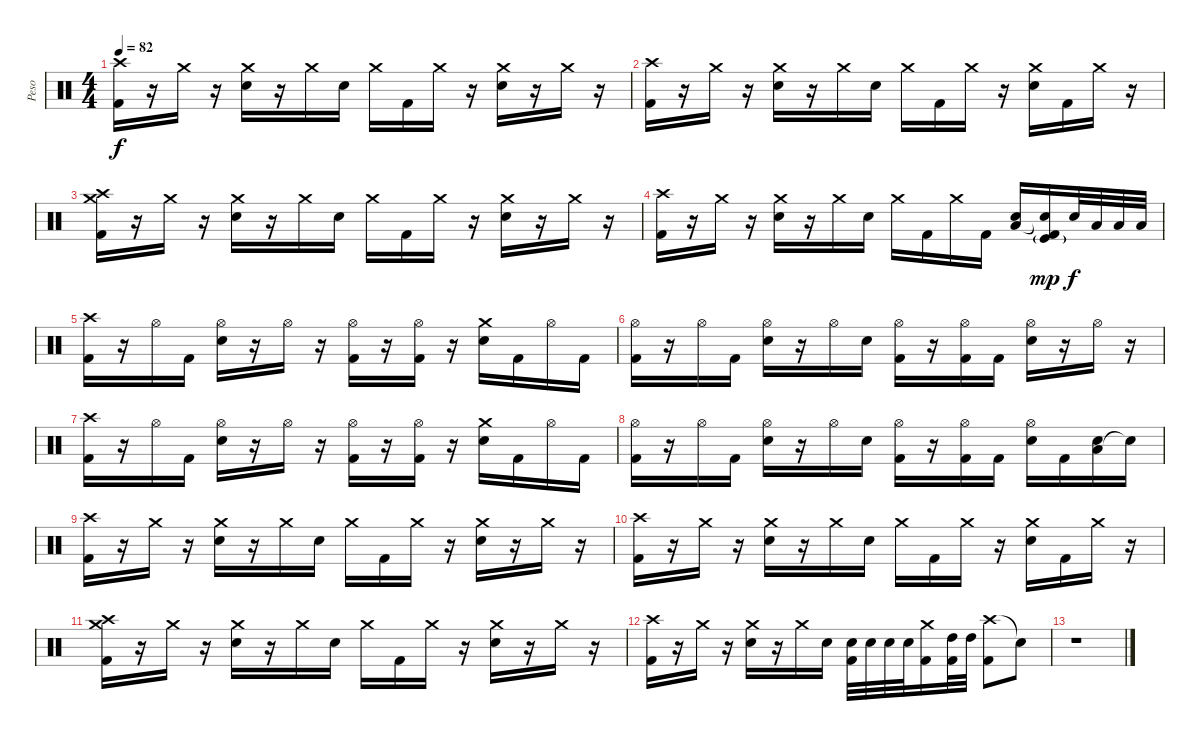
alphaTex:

\track ("Peso" "Peso") {instrument percussion}
\staff {score}
\articulation defaults
\ts (4 4)
\tempo 82
\clef neutral
\ks c
("Crash high (hit)" "Kick (hit) 2").16{dy f} r.16 "Crash medium (hit)".16 r.16 ("Crash medium (hit)" "Electric Snare (hit)").16 r.16 "Crash medium (hit)".16 "Electric Snare (hit)".16 "Crash medium (hit)".16 "Kick (hit) 2".16 "Crash medium (hit)".16 r.16 ("Crash medium (hit)" "Electric Snare (hit)").16 r.16 "Crash medium (hit)".16 r.16 |
("Crash high (hit)" "Kick (hit) 2").16 r.16 "Crash medium (hit)".16 r.16 ("Crash medium (hit)" "Electric Snare (hit)").16 r.16 "Crash medium (hit)".16 "Electric Snare (hit)".16 "Crash medium (hit)".16 "Kick (hit) 2".16 "Crash medium (hit)".16 r.16 ("Crash medium (hit)" "Electric Snare (hit)").16 "Kick (hit) 2".16 "Crash medium (hit)".16 r.16 |
("Crash high (hit)" "Crash medium (hit)" "Kick (hit) 2").16 r.16 "Crash medium (hit)".16 r.16 ("Crash medium (hit)" "Electric Snare (hit)").16 r.16 "Crash medium (hit)".16 "Electric Snare (hit)".16 "Crash medium (hit)".16 "Kick (hit) 2".16 "Crash medium (hit)".16 r.16 ("Crash medium (hit)" "Electric Snare (hit)").16 r.16 "Crash medium (hit)".16 r.16 |
("Crash high (hit)" "Kick (hit) 2").16 r.16 "Crash medium (hit)".16 r.16 ("Crash medium (hit)" "Electric Snare (hit)").16 r.16 "Crash medium (hit)".16 "Electric Snare (hit)".16 "Crash medium (hit)".16 "Kick (hit) 2".16 "Crash medium (hit)".16 "Kick (hit) 2".16 ("Low Floor Tom (hit)" "Electric Snare (hit)").16 ("Snare (hit)"{t} "Kick (hit)"{g} "Kick (hit) 2").16{dy mp} "Electric Snare (hit)".32{dy f} "Low Tom (hit)".32 "Low Tom (hit)".32 "Low Tom (hit)".32 |
("Crash high (hit)" "Kick (hit) 2").16 r.16 "Hi-Hat (open)".16 "Kick (hit) 2".16 ("Hi-Hat (open)" "Electric Snare (hit)").16 r.16 "Hi-Hat (open)".16 r.16 ("Hi-Hat (open)" "Kick (hit) 2").16 r.16 ("Hi-Hat (open)" "Kick (hit) 2").16 r.16 ("Crash medium (hit)" "Electric Snare (hit)").16 "Kick (hit) 2".16 "Hi-Hat (open)".16 "Kick (hit) 2".16 |
("Hi-Hat (open)" "Kick (hit) 2").16 r.16 "Hi-Hat (open)".16 "Kick (hit) 2".16 ("Hi-Hat (open)" "Electric Snare (hit)").16 r.16 "Hi-Hat (open)".16 "Electric Snare (hit)".16 ("Hi-Hat (open)" "Kick (hit) 2").16 r.16 ("Hi-Hat (open)" "Kick (hit) 2").16 "Kick (hit) 2".16 ("Hi-Hat (open)" "Electric Snare (hit)").16 r.16 "Hi-Hat (open)".16 r.16 |
("Crash high (hit)" "Kick (hit) 2").16 r.16 "Hi-Hat (open)".16 "Kick (hit) 2".16 ("Hi-Hat (open)" "Electric Snare (hit)").16 r.16 "Hi-Hat (open)".16 r.16 ("Hi-Hat (open)" "Kick (hit) 2").16 r.16 ("Hi-Hat (open)" "Kick (hit) 2").16 r.16 ("Crash medium (hit)" "Electric Snare (hit)").16 "Kick (hit) 2".16 "Hi-Hat (open)".16 "Kick (hit) 2".16 |
("Hi-Hat (open)" "Kick (hit) 2").16 r.16 "Hi-Hat (open)".16 "Kick (hit) 2".16 ("Hi-Hat (open)" "Electric Snare (hit)").16 r.16 "Hi-Hat (open)".16 "Electric Snare (hit)".16 ("Hi-Hat (open)" "Kick (hit) 2").16 r.16 ("Hi-Hat (open)" "Kick (hit) 2").16 "Kick (hit) 2".16 ("Hi-Hat (open)" "Electric Snare (hit)").16 "Kick (hit) 2".16 ("Low Floor Tom (hit)" "Electric Snare (hit)").16 "Snare (hit)"{t}.16 |
("Crash high (hit)" "Kick (hit) 2").16 r.16 "Crash medium (hit)".16 r.16 ("Crash medium (hit)" "Electric Snare (hit)").16 r.16 "Crash medium (hit)".16 "Electric Snare (hit)".16 "Crash medium (hit)".16 "Kick (hit) 2".16 "Crash medium (hit)".16 r.16 ("Crash medium (hit)" "Electric Snare (hit)").16 r.16 "Crash medium (hit)".16 r.16 |
("Crash high (hit)" "Kick (hit) 2").16 r.16 "Crash medium (hit)".16 r.16 ("Crash medium (hit)" "Electric Snare (hit)").16 r.16 "Crash medium (hit)".16 "Electric Snare (hit)".16 "Crash medium (hit)".16 "Kick (hit) 2".16 "Crash medium (hit)".16 r.16 ("Crash medium (hit)" "Electric Snare (hit)").16 "Kick (hit) 2".16 "Crash medium (hit)".16 r.16 |
("Crash high (hit)" "Crash medium (hit)" "Kick (hit) 2").16 r.16 "Crash medium (hit)".16 r.16 ("Crash medium (hit)" "Electric Snare (hit)").16 r.16 "Crash medium (hit)".16 "Electric Snare (hit)".16 "Crash medium (hit)".16 "Kick (hit) 2".16 "Crash medium (hit)".16 r.16 ("Crash medium (hit)" "Electric Snare (hit)").16 r.16 "Crash medium (hit)".16 r.16 |
("Crash high (hit)" "Kick (hit) 2").16 r.16 "Crash medium (hit)".16 r.16 ("Crash medium (hit)" "Electric Snare (hit)").16 r.16 "Crash medium (hit)".16 "Electric Snare (hit)".16 ("Electric Snare (hit)" "Kick (hit) 2").32 "Electric Snare (hit)".32 "Electric Snare (hit)".32 "Electric Snare (hit)".32 ("Crash medium (hit)" "Kick (hit) 2").16 ("High Tom (hit)" "Kick (hit) 2").32 "High Tom (hit)".32 ("Crash high (hit)" "Kick (hit) 2").8 "Snare (hit)"{t}.8 |
r.1
